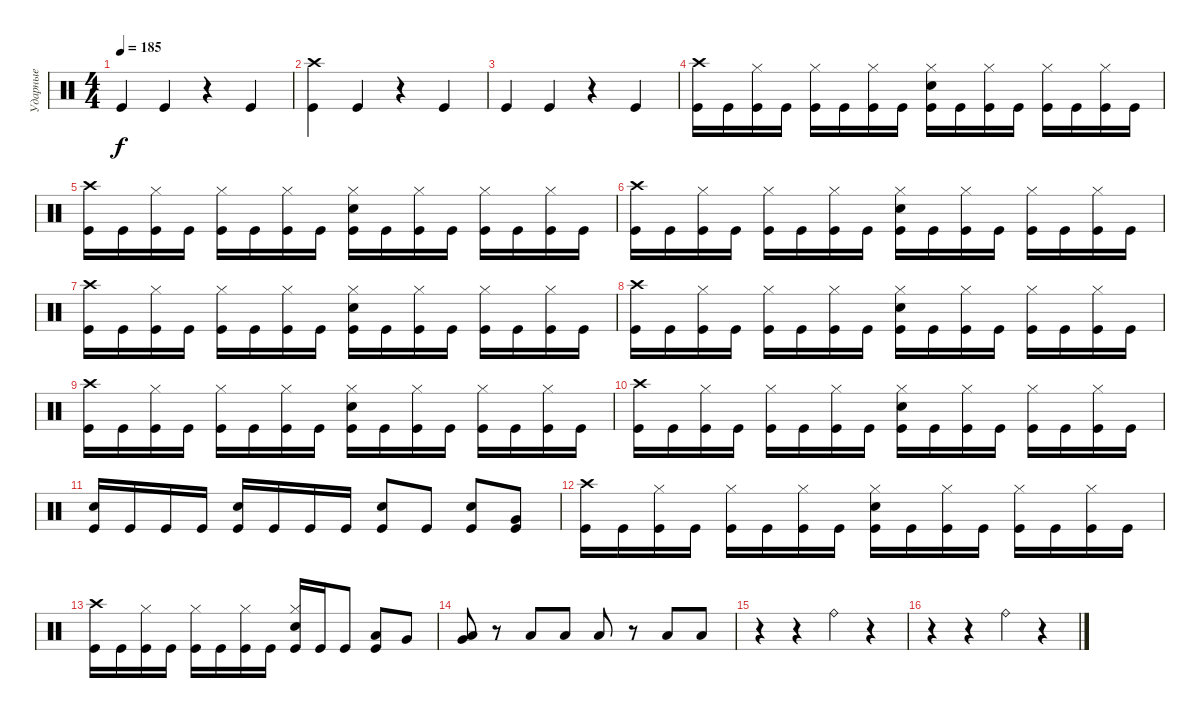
\track ("Ударные" "Ударные") {instrument percussion}
\staff {score}
\articulation defaults
\ts (4 4)
\tempo 185
\clef neutral
\ks c "Kick (hit)".4{dy f} "Kick (hit)".4
r.4 "Kick (hit)".4 |
("Crash high (hit)" "Kick (hit)").4 "Kick (hit)".4 r.4 "Kick (hit)".4 |
"Kick (hit)".4 "Kick (hit)".4 r.4 "Kick (hit)".4 |
("Crash high (hit)" "Kick (hit)").16 "Kick (hit)".16 ("Hi-Hat (closed)" "Kick (hit)").16 "Kick (hit)".16 ("Hi-Hat (closed)" "Kick (hit)").16 "Kick (hit)".16 ("Hi-Hat (closed)" "Kick (hit)").16 "Kick (hit)".16 ("Hi-Hat (closed)" "Electric Snare (hit)" "Kick (hit)").16 "Kick (hit)".16 ("Hi-Hat (closed)" "Kick (hit)").16 "Kick (hit)".16 ("Hi-Hat (closed)" "Kick (hit)").16 "Kick (hit)".16 ("Hi-Hat (closed)" "Kick (hit)").16 "Kick (hit)".16 |
("Crash high (hit)" "Kick (hit)").16 "Kick (hit)".16 ("Hi-Hat (closed)" "Kick (hit)").16 "Kick (hit)".16 ("Hi-Hat (closed)" "Kick (hit)").16 "Kick (hit)".16 ("Hi-Hat (closed)" "Kick (hit)").16 "Kick (hit)".16 ("Hi-Hat (closed)" "Electric Snare (hit)" "Kick (hit)").16 "Kick (hit)".16 ("Hi-Hat (closed)" "Kick (hit)").16 "Kick (hit)".16 ("Hi-Hat (closed)" "Kick (hit)").16 "Kick (hit)".16 ("Hi-Hat (closed)" "Kick (hit)").16 "Kick (hit)".16 |
("Crash high (hit)" "Kick (hit)").16 "Kick (hit)".16 ("Hi-Hat (closed)" "Kick (hit)").16 "Kick (hit)".16 ("Hi-Hat (closed)" "Kick (hit)").16 "Kick (hit)".16 ("Hi-Hat (closed)" "Kick (hit)").16 "Kick (hit)".16 ("Hi-Hat (closed)" "Electric Snare (hit)" "Kick (hit)").16 "Kick (hit)".16 ("Hi-Hat (closed)" "Kick (hit)").16 "Kick (hit)".16 ("Hi-Hat (closed)" "Kick (hit)").16 "Kick (hit)".16 ("Hi-Hat (closed)" "Kick (hit)").16 "Kick (hit)".16 |
("Crash high (hit)" "Kick (hit)").16 "Kick (hit)".16 ("Hi-Hat (closed)" "Kick (hit)").16 "Kick (hit)".16 ("Hi-Hat (closed)" "Kick (hit)").16 "Kick (hit)".16 ("Hi-Hat (closed)" "Kick (hit)").16 "Kick (hit)".16 ("Hi-Hat (closed)" "Electric Snare (hit)" "Kick (hit)").16 "Kick (hit)".16 ("Hi-Hat (closed)" "Kick (hit)").16 "Kick (hit)".16 ("Hi-Hat (closed)" "Kick (hit)").16 "Kick (hit)".16 ("Hi-Hat (closed)" "Kick (hit)").16 "Kick (hit)".16 |
("Crash high (hit)" "Kick (hit)").16 "Kick (hit)".16 ("Hi-Hat (closed)" "Kick (hit)").16 "Kick (hit)".16 ("Hi-Hat (closed)" "Kick (hit)").16 "Kick (hit)".16 ("Hi-Hat (closed)" "Kick (hit)").16 "Kick (hit)".16 ("Hi-Hat (closed)" "Electric Snare (hit)" "Kick (hit)").16 "Kick (hit)".16 ("Hi-Hat (closed)" "Kick (hit)").16 "Kick (hit)".16 ("Hi-Hat (closed)" "Kick (hit)").16 "Kick (hit)".16 ("Hi-Hat (closed)" "Kick (hit)").16 "Kick (hit)".16 |
("Crash high (hit)" "Kick (hit)").16 "Kick (hit)".16 ("Hi-Hat (closed)" "Kick (hit)").16 "Kick (hit)".16 ("Hi-Hat (closed)" "Kick (hit)").16 "Kick (hit)".16 ("Hi-Hat (closed)" "Kick (hit)").16 "Kick (hit)".16 ("Hi-Hat (closed)" "Electric Snare (hit)" "Kick (hit)").16 "Kick (hit)".16 ("Hi-Hat (closed)" "Kick (hit)").16 "Kick (hit)".16 ("Hi-Hat (closed)" "Kick (hit)").16 "Kick (hit)".16 ("Hi-Hat (closed)" "Kick (hit)").16 "Kick (hit)".16 |
("Crash high (hit)" "Kick (hit)").16 "Kick (hit)".16 ("Hi-Hat (closed)" "Kick (hit)").16 "Kick (hit)".16 ("Hi-Hat (closed)" "Kick (hit)").16 "Kick (hit)".16 ("Hi-Hat (closed)" "Kick (hit)").16 "Kick (hit)".16 ("Hi-Hat (closed)" "Electric Snare (hit)" "Kick (hit)").16 "Kick (hit)".16 ("Hi-Hat (closed)" "Kick (hit)").16 "Kick (hit)".16 ("Hi-Hat (closed)" "Kick (hit)").16 "Kick (hit)".16 ("Hi-Hat (closed)" "Kick (hit)").16 "Kick (hit)".16 |
("Electric Snare (hit)" "Kick (hit)").16 "Kick (hit)".16 "Kick (hit)".16 "Kick (hit)".16 ("Electric Snare (hit)" "Kick (hit)").16 "Kick (hit)".16 "Kick (hit)".16 "Kick (hit)".16 ("Electric Snare (hit)" "Kick (hit)").8 "Kick (hit)".8 ("Electric Snare (hit)" "Kick (hit)").8 ("Very Low Tom (hit)" "Kick (hit)").8 |
("Crash high (hit)" "Kick (hit)").16 "Kick (hit)".16 ("Hi-Hat (closed)" "Kick (hit)").16 "Kick (hit)".16 ("Hi-Hat (closed)" "Kick (hit)").16 "Kick (hit)".16 ("Hi-Hat (closed)" "Kick (hit)").16 "Kick (hit)".16 ("Hi-Hat (closed)" "Electric Snare (hit)" "Kick (hit)").16 "Kick (hit)".16 ("Hi-Hat (closed)" "Kick (hit)").16 "Kick (hit)".16 ("Hi-Hat (closed)" "Kick (hit)").16 "Kick (hit)".16 ("Hi-Hat (closed)" "Kick (hit)").16 "Kick (hit)".16 |
("Crash high (hit)" "Kick (hit)").16 "Kick (hit)".16 ("Hi-Hat (closed)" "Kick (hit)").16 "Kick (hit)".16 ("Hi-Hat (closed)" "Kick (hit)").16 "Kick (hit)".16 ("Hi-Hat (closed)" "Kick (hit)").16 "Kick (hit)".16 ("Hi-Hat (closed)" "Electric Snare (hit)" "Kick (hit)").16 "Kick (hit)".16 "Kick (hit)".8 ("Low Tom (hit)" "Kick (hit)").8 "Very Low Tom (hit)".8 |
("Very Low Tom (hit)" "Low Tom (hit)").8 r.8 "Low Tom (hit)".8 "Low Tom (hit)".8 "Low Tom (hit)".8 r.8 "Low Tom (hit)".8 "Low Tom (hit)".8 |
r.4 r.4 "Ride (bell)".4 r.4 |
r.4 r.4 "Ride (bell)".4 r.4
